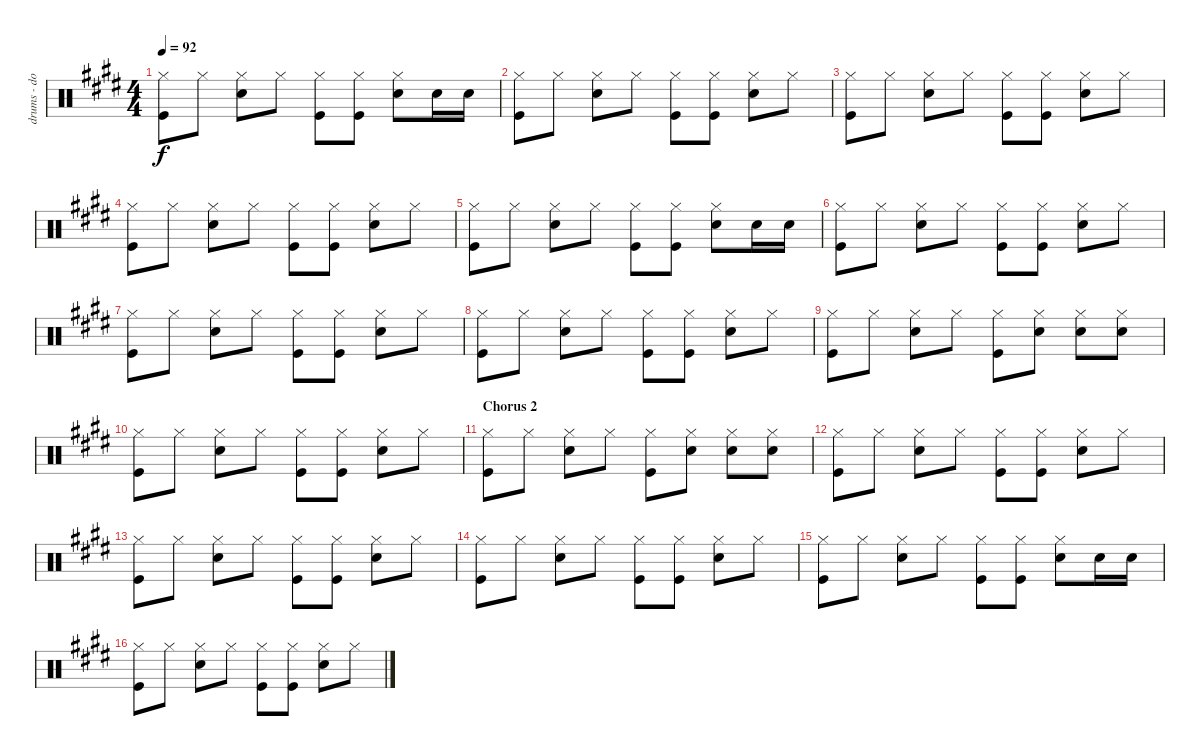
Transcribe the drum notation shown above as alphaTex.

\track ("drums - dodgy" "drums - do") {instrument percussion}
\staff {score}
\articulation defaults
\ts (4 4)
\tempo 92
\clef neutral
\ks e
("Hi-Hat (closed)" "Kick (hit)").8{dy f} "Hi-Hat (closed)".8 ("Hi-Hat (closed)" "Snare (hit) 2").8 "Hi-Hat (closed)".8 ("Hi-Hat (closed)" "Kick (hit)").8 ("Hi-Hat (closed)" "Kick (hit)").8 ("Hi-Hat (closed)" "Snare (hit) 2").8 "Snare (hit) 2".16 "Snare (hit) 2".16 |
("Hi-Hat (closed)" "Kick (hit)").8 "Hi-Hat (closed)".8 ("Hi-Hat (closed)" "Snare (hit) 2").8 "Hi-Hat (closed)".8 ("Hi-Hat (closed)" "Kick (hit)").8 ("Hi-Hat (closed)" "Kick (hit)").8 ("Hi-Hat (closed)" "Snare (hit) 2").8 "Hi-Hat (closed)".8 |
("Hi-Hat (closed)" "Kick (hit)").8 "Hi-Hat (closed)".8 ("Hi-Hat (closed)" "Snare (hit) 2").8 "Hi-Hat (closed)".8 ("Hi-Hat (closed)" "Kick (hit)").8 ("Hi-Hat (closed)" "Kick (hit)").8 ("Hi-Hat (closed)" "Snare (hit) 2").8 "Hi-Hat (closed)".8 |
("Hi-Hat (closed)" "Kick (hit)").8 "Hi-Hat (closed)".8 ("Hi-Hat (closed)" "Snare (hit) 2").8 "Hi-Hat (closed)".8 ("Hi-Hat (closed)" "Kick (hit)").8 ("Hi-Hat (closed)" "Kick (hit)").8 ("Hi-Hat (closed)" "Snare (hit) 2").8 "Hi-Hat (closed)".8 |
("Hi-Hat (closed)" "Kick (hit)").8 "Hi-Hat (closed)".8 ("Hi-Hat (closed)" "Snare (hit) 2").8 "Hi-Hat (closed)".8 ("Hi-Hat (closed)" "Kick (hit)").8 ("Hi-Hat (closed)" "Kick (hit)").8 ("Hi-Hat (closed)" "Snare (hit) 2").8 "Snare (hit) 2".16 "Snare (hit) 2".16 |
("Hi-Hat (closed)" "Kick (hit)").8 "Hi-Hat (closed)".8 ("Hi-Hat (closed)" "Snare (hit) 2").8 "Hi-Hat (closed)".8 ("Hi-Hat (closed)" "Kick (hit)").8 ("Hi-Hat (closed)" "Kick (hit)").8 ("Hi-Hat (closed)" "Snare (hit) 2").8 "Hi-Hat (closed)".8 |
("Hi-Hat (closed)" "Kick (hit)").8 "Hi-Hat (closed)".8 ("Hi-Hat (closed)" "Snare (hit) 2").8 "Hi-Hat (closed)".8 ("Hi-Hat (closed)" "Kick (hit)").8 ("Hi-Hat (closed)" "Kick (hit)").8 ("Hi-Hat (closed)" "Snare (hit) 2").8 "Hi-Hat (closed)".8 |
("Hi-Hat (closed)" "Kick (hit)").8 "Hi-Hat (closed)".8 ("Hi-Hat (closed)" "Snare (hit) 2").8 "Hi-Hat (closed)".8 ("Hi-Hat (closed)" "Kick (hit)").8 ("Hi-Hat (closed)" "Kick (hit)").8 ("Hi-Hat (closed)" "Snare (hit) 2").8 "Hi-Hat (closed)".8 |
("Hi-Hat (closed)" "Kick (hit)").8 "Hi-Hat (closed)".8 ("Hi-Hat (closed)" "Snare (hit) 2").8 "Hi-Hat (closed)".8 ("Hi-Hat (closed)" "Kick (hit)").8 ("Hi-Hat (closed)" "Snare (hit) 2").8 ("Hi-Hat (closed)" "Snare (hit) 2").8 ("Hi-Hat (closed)" "Snare (hit) 2").8 |
("Hi-Hat (closed)" "Kick (hit)").8 "Hi-Hat (closed)".8 ("Hi-Hat (closed)" "Snare (hit) 2").8 "Hi-Hat (closed)".8 ("Hi-Hat (closed)" "Kick (hit)").8 ("Hi-Hat (closed)" "Kick (hit)").8 ("Hi-Hat (closed)" "Snare (hit) 2").8 "Hi-Hat (closed)".8 |
\section ("" "Chorus 2")
("Hi-Hat (closed)" "Kick (hit)").8 "Hi-Hat (closed)".8 ("Hi-Hat (closed)" "Snare (hit) 2").8 "Hi-Hat (closed)".8 ("Hi-Hat (closed)" "Kick (hit)").8 ("Hi-Hat (closed)" "Snare (hit) 2").8 ("Hi-Hat (closed)" "Snare (hit) 2").8 ("Hi-Hat (closed)" "Snare (hit) 2").8 |
("Hi-Hat (closed)" "Kick (hit)").8 "Hi-Hat (closed)".8 ("Hi-Hat (closed)" "Snare (hit) 2").8 "Hi-Hat (closed)".8 ("Hi-Hat (closed)" "Kick (hit)").8 ("Hi-Hat (closed)" "Kick (hit)").8 ("Hi-Hat (closed)" "Snare (hit) 2").8 "Hi-Hat (closed)".8 |
("Hi-Hat (closed)" "Kick (hit)").8 "Hi-Hat (closed)".8 ("Hi-Hat (closed)" "Snare (hit) 2").8 "Hi-Hat (closed)".8 ("Hi-Hat (closed)" "Kick (hit)").8 ("Hi-Hat (closed)" "Kick (hit)").8 ("Hi-Hat (closed)" "Snare (hit) 2").8 "Hi-Hat (closed)".8 |
("Hi-Hat (closed)" "Kick (hit)").8 "Hi-Hat (closed)".8 ("Hi-Hat (closed)" "Snare (hit) 2").8 "Hi-Hat (closed)".8 ("Hi-Hat (closed)" "Kick (hit)").8 ("Hi-Hat (closed)" "Kick (hit)").8 ("Hi-Hat (closed)" "Snare (hit) 2").8 "Hi-Hat (closed)".8 |
("Hi-Hat (closed)" "Kick (hit)").8 "Hi-Hat (closed)".8 ("Hi-Hat (closed)" "Snare (hit) 2").8 "Hi-Hat (closed)".8 ("Hi-Hat (closed)" "Kick (hit)").8 ("Hi-Hat (closed)" "Kick (hit)").8 ("Hi-Hat (closed)" "Snare (hit) 2").8 "Snare (hit) 2".16 "Snare (hit) 2".16 |
("Hi-Hat (closed)" "Kick (hit)").8 "Hi-Hat (closed)".8 ("Hi-Hat (closed)" "Snare (hit) 2").8 "Hi-Hat (closed)".8 ("Hi-Hat (closed)" "Kick (hit)").8 ("Hi-Hat (closed)" "Kick (hit)").8 ("Hi-Hat (closed)" "Snare (hit) 2").8 "Hi-Hat (closed)".8
